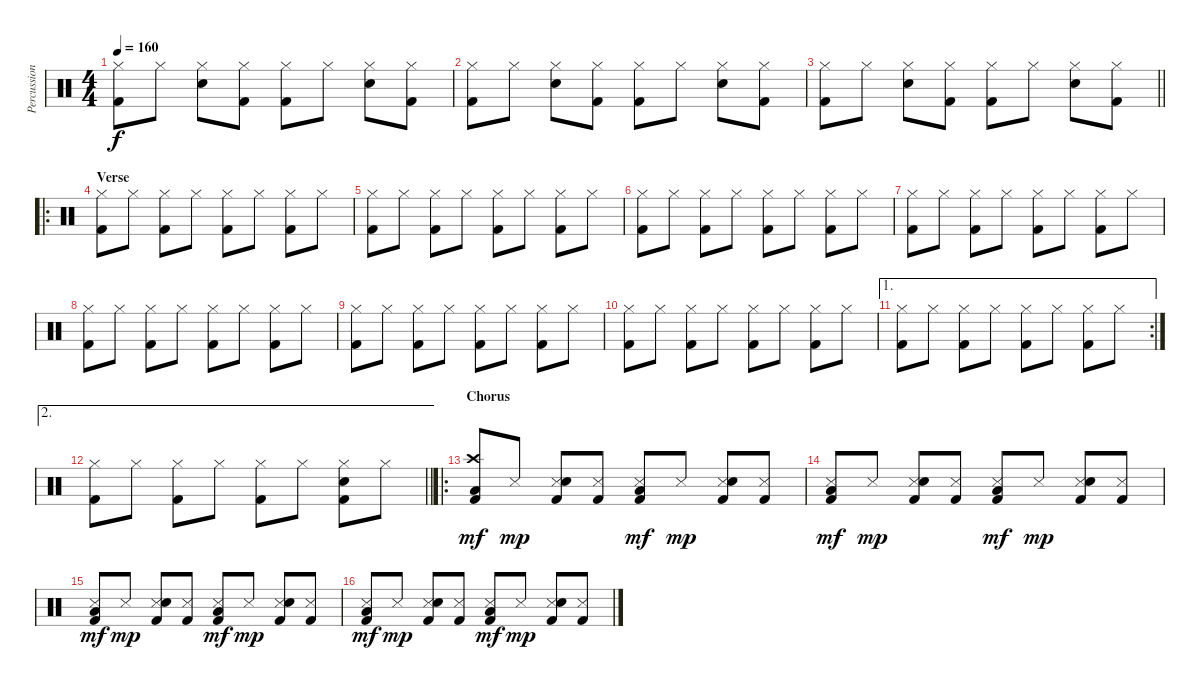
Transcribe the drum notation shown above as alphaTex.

\track ("Percussion" "Percussion") {instrument percussion}
\staff {score}
\articulation defaults
\ts (4 4)
\tempo 160
\clef neutral
\ks c
("Hi-Hat (closed)" "Kick (hit) 2").8{dy f} "Hi-Hat (closed)".8 ("Hi-Hat (closed)" "Electric Snare (hit)").8 ("Hi-Hat (closed)" "Kick (hit) 2").8 ("Hi-Hat (closed)" "Kick (hit) 2").8 "Hi-Hat (closed)".8 ("Hi-Hat (closed)" "Electric Snare (hit)").8 ("Hi-Hat (closed)" "Kick (hit) 2").8 |
("Hi-Hat (closed)" "Kick (hit) 2").8 "Hi-Hat (closed)".8 ("Hi-Hat (closed)" "Electric Snare (hit)").8 ("Hi-Hat (closed)" "Kick (hit) 2").8 ("Hi-Hat (closed)" "Kick (hit) 2").8 "Hi-Hat (closed)".8 ("Hi-Hat (closed)" "Electric Snare (hit)").8 ("Hi-Hat (closed)" "Kick (hit) 2").8 |
\barLineRight lightlight
("Hi-Hat (closed)" "Kick (hit) 2").8 "Hi-Hat (closed)".8 ("Hi-Hat (closed)" "Electric Snare (hit)").8 ("Hi-Hat (closed)" "Kick (hit) 2").8 ("Hi-Hat (closed)" "Kick (hit) 2").8 "Hi-Hat (closed)".8 ("Hi-Hat (closed)" "Electric Snare (hit)").8 ("Hi-Hat (closed)" "Kick (hit) 2").8 |
\ro
\section ("" "Verse")
("Hi-Hat (closed)" "Kick (hit) 2").8 "Hi-Hat (closed)".8 ("Hi-Hat (closed)" "Kick (hit) 2").8 "Hi-Hat (closed)".8 ("Hi-Hat (closed)" "Kick (hit) 2").8 "Hi-Hat (closed)".8 ("Hi-Hat (closed)" "Kick (hit) 2").8 "Hi-Hat (closed)".8 |
("Hi-Hat (closed)" "Kick (hit) 2").8 "Hi-Hat (closed)".8 ("Hi-Hat (closed)" "Kick (hit) 2").8 "Hi-Hat (closed)".8 ("Hi-Hat (closed)" "Kick (hit) 2").8 "Hi-Hat (closed)".8 ("Hi-Hat (closed)" "Kick (hit) 2").8 "Hi-Hat (closed)".8 |
("Hi-Hat (closed)" "Kick (hit) 2").8 "Hi-Hat (closed)".8 ("Hi-Hat (closed)" "Kick (hit) 2").8 "Hi-Hat (closed)".8 ("Hi-Hat (closed)" "Kick (hit) 2").8 "Hi-Hat (closed)".8 ("Hi-Hat (closed)" "Kick (hit) 2").8 "Hi-Hat (closed)".8 |
("Hi-Hat (closed)" "Kick (hit) 2").8 "Hi-Hat (closed)".8 ("Hi-Hat (closed)" "Kick (hit) 2").8 "Hi-Hat (closed)".8 ("Hi-Hat (closed)" "Kick (hit) 2").8 "Hi-Hat (closed)".8 ("Hi-Hat (closed)" "Kick (hit) 2").8 "Hi-Hat (closed)".8 |
("Hi-Hat (closed)" "Kick (hit) 2").8 "Hi-Hat (closed)".8 ("Hi-Hat (closed)" "Kick (hit) 2").8 "Hi-Hat (closed)".8 ("Hi-Hat (closed)" "Kick (hit) 2").8 "Hi-Hat (closed)".8 ("Hi-Hat (closed)" "Kick (hit) 2").8 "Hi-Hat (closed)".8 |
("Hi-Hat (closed)" "Kick (hit) 2").8 "Hi-Hat (closed)".8 ("Hi-Hat (closed)" "Kick (hit) 2").8 "Hi-Hat (closed)".8 ("Hi-Hat (closed)" "Kick (hit) 2").8 "Hi-Hat (closed)".8 ("Hi-Hat (closed)" "Kick (hit) 2").8 "Hi-Hat (closed)".8 |
("Hi-Hat (closed)" "Kick (hit) 2").8 "Hi-Hat (closed)".8 ("Hi-Hat (closed)" "Kick (hit) 2").8 "Hi-Hat (closed)".8 ("Hi-Hat (closed)" "Kick (hit) 2").8 "Hi-Hat (closed)".8 ("Hi-Hat (closed)" "Kick (hit) 2").8 "Hi-Hat (closed)".8 |
\ae 1
\rc 2
("Hi-Hat (closed)" "Kick (hit) 2").8 "Hi-Hat (closed)".8 ("Hi-Hat (closed)" "Kick (hit) 2").8 "Hi-Hat (closed)".8 ("Hi-Hat (closed)" "Kick (hit) 2").8 "Hi-Hat (closed)".8 ("Hi-Hat (closed)" "Kick (hit) 2").8 "Hi-Hat (closed)".8 |
\ae 2
\barLineRight lightlight
("Hi-Hat (closed)" "Kick (hit) 2").8 "Hi-Hat (closed)".8 ("Hi-Hat (closed)" "Kick (hit) 2").8 "Hi-Hat (closed)".8 ("Hi-Hat (closed)" "Kick (hit) 2").8 "Hi-Hat (closed)".8 ("Hi-Hat (closed)" "Electric Snare (hit)" "Kick (hit) 2").8 "Hi-Hat (closed)".8 |
\ro
\section ("" "Chorus")
("Crash high (hit)" "Low Tom (hit)" "Kick (hit) 2").8{dy mf} "Snare (side stick) 3".8{dy mp} ("Snare (side stick) 3" "Electric Snare (hit)" "Kick (hit) 2").8 ("Snare (side stick) 3" "Kick (hit) 2").8 ("Snare (side stick) 3" "Low Tom (hit)" "Kick (hit) 2").8{dy mf} "Snare (side stick) 3".8{dy mp} ("Snare (side stick) 3" "Electric Snare (hit)" "Kick (hit) 2").8 ("Snare (side stick) 3" "Kick (hit) 2").8 |
("Snare (side stick) 3" "Low Tom (hit)" "Kick (hit) 2").8{dy mf} "Snare (side stick) 3".8{dy mp} ("Snare (side stick) 3" "Electric Snare (hit)" "Kick (hit) 2").8 ("Snare (side stick) 3" "Kick (hit) 2").8 ("Snare (side stick) 3" "Low Tom (hit)" "Kick (hit) 2").8{dy mf} "Snare (side stick) 3".8{dy mp} ("Snare (side stick) 3" "Electric Snare (hit)" "Kick (hit) 2").8 ("Snare (side stick) 3" "Kick (hit) 2").8 |
("Snare (side stick) 3" "Low Tom (hit)" "Kick (hit) 2").8{dy mf} "Snare (side stick) 3".8{dy mp} ("Snare (side stick) 3" "Electric Snare (hit)" "Kick (hit) 2").8 ("Snare (side stick) 3" "Kick (hit) 2").8 ("Snare (side stick) 3" "Low Tom (hit)" "Kick (hit) 2").8{dy mf} "Snare (side stick) 3".8{dy mp} ("Snare (side stick) 3" "Electric Snare (hit)" "Kick (hit) 2").8 ("Snare (side stick) 3" "Kick (hit) 2").8 |
("Snare (side stick) 3" "Low Tom (hit)" "Kick (hit) 2").8{dy mf} "Snare (side stick) 3".8{dy mp} ("Snare (side stick) 3" "Electric Snare (hit)" "Kick (hit) 2").8 ("Snare (side stick) 3" "Kick (hit) 2").8 ("Snare (side stick) 3" "Low Tom (hit)" "Kick (hit) 2").8{dy mf} "Snare (side stick) 3".8{dy mp} ("Snare (side stick) 3" "Electric Snare (hit)" "Kick (hit) 2").8 ("Snare (side stick) 3" "Kick (hit) 2").8
